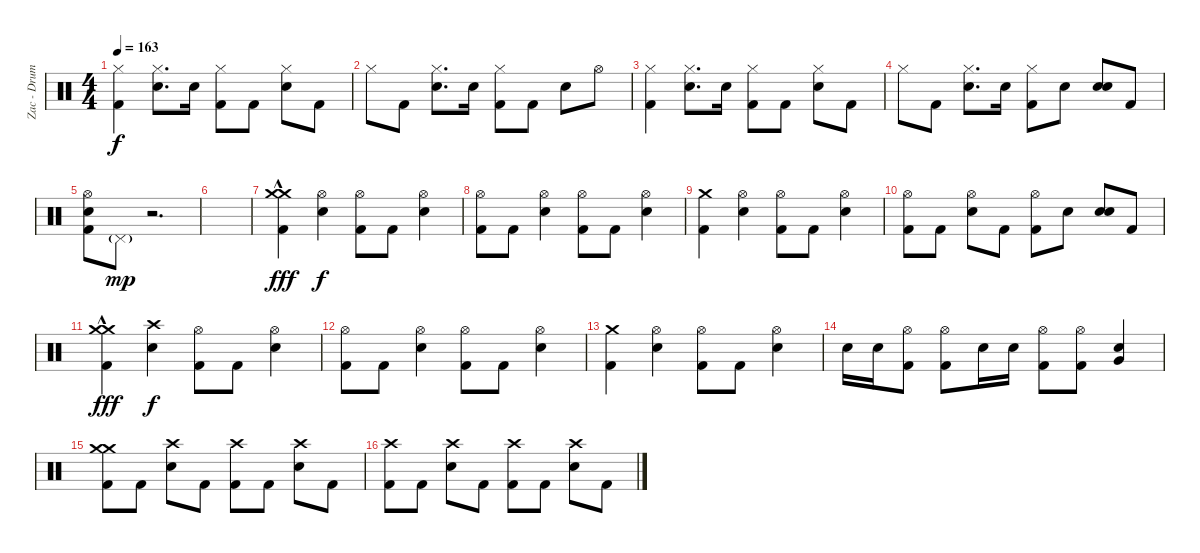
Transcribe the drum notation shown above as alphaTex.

\track ("Zac - Drums" "Zac - Drum") {instrument percussion}
\staff {score}
\articulation defaults
\ts (4 4)
\tempo 163
\clef neutral
\ks c
("Hi-Hat (closed)" "Kick (hit) 2").4{dy f} ("Hi-Hat (closed)" "Snare (hit) 2").8{d} "Snare (hit) 2".16 ("Hi-Hat (closed)" "Kick (hit) 2").8 "Kick (hit) 2".8 ("Hi-Hat (closed)" "Snare (hit) 2").8 "Kick (hit) 2".8 |
"Hi-Hat (closed)".8 "Kick (hit) 2".8 ("Hi-Hat (closed)" "Snare (hit) 2").8{d} "Snare (hit) 2".16 ("Hi-Hat (closed)" "Kick (hit) 2").8 "Kick (hit) 2".8 "Snare (hit) 2".8 "Hi-Hat (open)".8 |
("Hi-Hat (closed)" "Kick (hit) 2").4 ("Hi-Hat (closed)" "Snare (hit) 2").8{d} "Snare (hit) 2".16 ("Hi-Hat (closed)" "Kick (hit) 2").8 "Kick (hit) 2".8 ("Hi-Hat (closed)" "Snare (hit) 2").8 "Kick (hit) 2".8 |
"Hi-Hat (closed)".8 "Kick (hit) 2".8 ("Hi-Hat (closed)" "Snare (hit) 2").8{d} "Snare (hit) 2".16 ("Hi-Hat (closed)" "Kick (hit) 2").8 "Snare (hit) 2".8 ("Snare (hit) 2" "Snare (hit) 2").8 "Kick (hit) 2".8 |
("Hi-Hat (open)" "Snare (hit) 2" "Kick (hit) 2").8 "Pedal Hi-Hat (hit)"{g}.8{dy mp} r.2{d} |
|
("Crash medium (hit)"{hac} "Crash medium (hit)" "Kick (hit) 2").4{dy fff} ("Hi-Hat (open)" "Snare (hit) 2").4{dy f} ("Hi-Hat (open)" "Kick (hit) 2").8 "Kick (hit) 2".8 ("Hi-Hat (open)" "Snare (hit) 2").4 |
("Hi-Hat (open)" "Kick (hit) 2").8 "Kick (hit) 2".8 ("Hi-Hat (open)" "Snare (hit) 2").4 ("Hi-Hat (open)" "Kick (hit) 2").8 "Kick (hit) 2".8 ("Hi-Hat (open)" "Snare (hit) 2").4 |
("Crash medium (hit)" "Kick (hit) 2").4 ("Hi-Hat (open)" "Snare (hit) 2").4 ("Hi-Hat (open)" "Kick (hit) 2").8 "Kick (hit) 2".8 ("Hi-Hat (open)" "Snare (hit) 2").4 |
("Hi-Hat (open)" "Kick (hit) 2").8 "Kick (hit) 2".8 ("Hi-Hat (open)" "Snare (hit) 2").8 "Kick (hit) 2".8 ("Hi-Hat (open)" "Kick (hit) 2").8 "Snare (hit) 2".8 ("Snare (hit) 2" "Snare (hit) 2").8 "Kick (hit) 2".8 |
("Crash medium (hit)"{hac} "Crash medium (hit)" "Kick (hit) 2").4{dy fff} ("Crash high (hit)" "Snare (hit) 2").4{dy f} ("Hi-Hat (open)" "Kick (hit) 2").8 "Kick (hit) 2".8 ("Hi-Hat (open)" "Snare (hit) 2").4 |
("Hi-Hat (open)" "Kick (hit) 2").8 "Kick (hit) 2".8 ("Hi-Hat (open)" "Snare (hit) 2").4 ("Hi-Hat (open)" "Kick (hit) 2").8 "Kick (hit) 2".8 ("Hi-Hat (open)" "Snare (hit) 2").4 |
("Crash medium (hit)" "Kick (hit) 2").4 ("Hi-Hat (open)" "Snare (hit) 2").4 ("Hi-Hat (open)" "Kick (hit) 2").8 "Kick (hit) 2".8 ("Hi-Hat (open)" "Snare (hit) 2").4 |
"Snare (hit) 2".16 "Snare (hit) 2".16 ("Hi-Hat (open)" "Kick (hit) 2").8 ("Hi-Hat (open)" "Kick (hit) 2").8 "Snare (hit) 2".16 "Snare (hit) 2".16 ("Hi-Hat (open)" "Kick (hit) 2").8 ("Hi-Hat (open)" "Kick (hit) 2").8 ("Snare (hit) 2" "Very Low Tom (hit)").4 |
("Crash medium (hit)" "Crash medium (hit)" "Kick (hit) 2").8 "Kick (hit) 2".8 ("Crash high (hit)" "Snare (hit) 2").8 "Kick (hit) 2".8 ("Crash high (hit)" "Kick (hit) 2").8 "Kick (hit) 2".8 ("Crash high (hit)" "Snare (hit) 2").8 "Kick (hit) 2".8 |
("Crash high (hit)" "Kick (hit) 2").8 "Kick (hit) 2".8 ("Crash high (hit)" "Snare (hit) 2").8 "Kick (hit) 2".8 ("Crash high (hit)" "Kick (hit) 2").8 "Kick (hit) 2".8 ("Crash high (hit)" "Snare (hit) 2").8 "Kick (hit) 2".8
